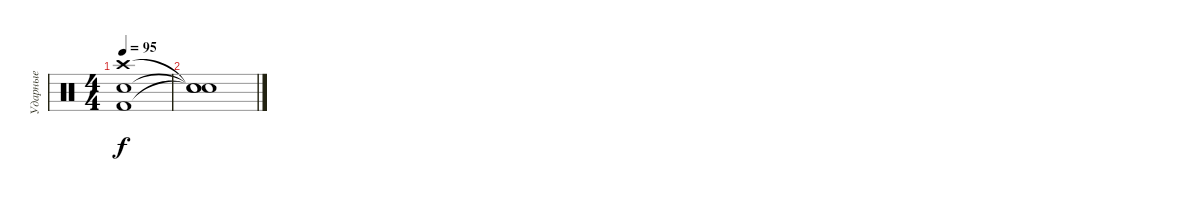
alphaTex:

\track ("Ударные" "Ударные") {instrument percussion}
\staff {score}
\articulation defaults
\ts (4 4)
\tempo 95
\clef neutral
\ks c
("Snare (hit) 2" "Kick (hit) 2" "Crash high (hit)").1{dy f} |
("Snare (hit)"{t} "Snare (hit)"{t} "Snare (hit)"{t}).1
